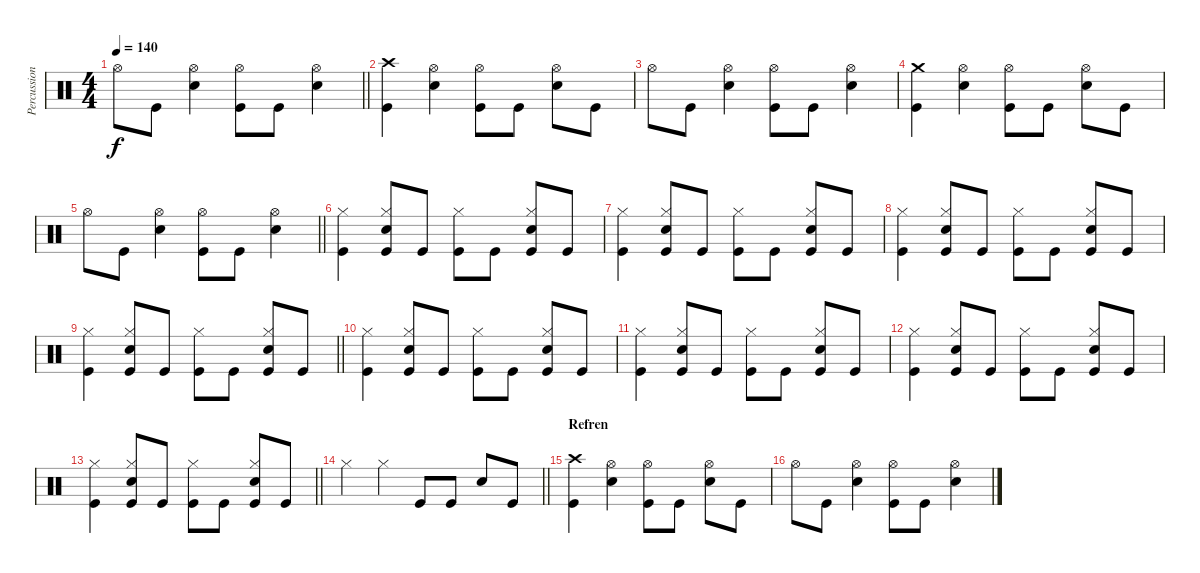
\track ("Percussion" "Percussion") {instrument percussion}
\staff {score}
\articulation defaults
\ts (4 4)
\tempo 140
\clef neutral
\barLineRight lightlight
\ks c "Hi-Hat (open)".8{dy f} "Kick (hit)".8
("Hi-Hat (open)" "Electric Snare (hit)").4 ("Hi-Hat (open)" "Kick (hit)").8 "Kick (hit)".8 ("Hi-Hat (open)" "Electric Snare (hit)").4 |
("Crash high (hit)" "Kick (hit)").4 ("Hi-Hat (open)" "Electric Snare (hit)").4 ("Hi-Hat (open)" "Kick (hit)").8 "Kick (hit)".8 ("Hi-Hat (open)" "Electric Snare (hit)").8 "Kick (hit)".8 |
"Hi-Hat (open)".8 "Kick (hit)".8 ("Hi-Hat (open)" "Electric Snare (hit)").4 ("Hi-Hat (open)" "Kick (hit)").8 "Kick (hit)".8 ("Hi-Hat (open)" "Electric Snare (hit)").4 |
("Crash medium (hit)" "Kick (hit)").4 ("Hi-Hat (open)" "Electric Snare (hit)").4 ("Hi-Hat (open)" "Kick (hit)").8 "Kick (hit)".8 ("Hi-Hat (open)" "Electric Snare (hit)").8 "Kick (hit)".8 |
\barLineRight lightlight "Hi-Hat (open)".8 "Kick (hit)".8
("Hi-Hat (open)" "Electric Snare (hit)").4 ("Hi-Hat (open)" "Kick (hit)").8 "Kick (hit)".8 ("Hi-Hat (open)" "Electric Snare (hit)").4 |
("Hi-Hat (closed)" "Kick (hit)").4 ("Hi-Hat (closed)" "Kick (hit)" "Snare (hit) 2").8 "Kick (hit)".8 ("Hi-Hat (closed)" "Kick (hit)").8 "Kick (hit)".8 ("Hi-Hat (closed)" "Kick (hit)" "Snare (hit) 2").8 "Kick (hit)".8 |
("Hi-Hat (closed)" "Kick (hit)").4 ("Hi-Hat (closed)" "Kick (hit)" "Snare (hit) 2").8 "Kick (hit)".8 ("Hi-Hat (closed)" "Kick (hit)").8 "Kick (hit)".8 ("Hi-Hat (closed)" "Kick (hit)" "Snare (hit) 2").8 "Kick (hit)".8 |
("Hi-Hat (closed)" "Kick (hit)").4 ("Hi-Hat (closed)" "Kick (hit)" "Snare (hit) 2").8 "Kick (hit)".8 ("Hi-Hat (closed)" "Kick (hit)").8 "Kick (hit)".8 ("Hi-Hat (closed)" "Kick (hit)" "Snare (hit) 2").8 "Kick (hit)".8 |
\barLineRight lightlight
("Hi-Hat (closed)" "Kick (hit)").4 ("Hi-Hat (closed)" "Kick (hit)" "Snare (hit) 2").8 "Kick (hit)".8 ("Hi-Hat (closed)" "Kick (hit)").8 "Kick (hit)".8 ("Hi-Hat (closed)" "Kick (hit)" "Snare (hit) 2").8 "Kick (hit)".8 |
("Hi-Hat (closed)" "Kick (hit)").4 ("Hi-Hat (closed)" "Kick (hit)" "Snare (hit) 2").8 "Kick (hit)".8 ("Hi-Hat (closed)" "Kick (hit)").8 "Kick (hit)".8 ("Hi-Hat (closed)" "Kick (hit)" "Snare (hit) 2").8 "Kick (hit)".8 |
("Hi-Hat (closed)" "Kick (hit)").4 ("Hi-Hat (closed)" "Kick (hit)" "Snare (hit) 2").8 "Kick (hit)".8 ("Hi-Hat (closed)" "Kick (hit)").8 "Kick (hit)".8 ("Hi-Hat (closed)" "Kick (hit)" "Snare (hit) 2").8 "Kick (hit)".8 |
("Hi-Hat (closed)" "Kick (hit)").4 ("Hi-Hat (closed)" "Kick (hit)" "Snare (hit) 2").8 "Kick (hit)".8 ("Hi-Hat (closed)" "Kick (hit)").8 "Kick (hit)".8 ("Hi-Hat (closed)" "Kick (hit)" "Snare (hit) 2").8 "Kick (hit)".8 |
\barLineRight lightlight
("Hi-Hat (closed)" "Kick (hit)").4 ("Hi-Hat (closed)" "Kick (hit)" "Snare (hit) 2").8 "Kick (hit)".8 ("Hi-Hat (closed)" "Kick (hit)").8 "Kick (hit)".8 ("Hi-Hat (closed)" "Kick (hit)" "Snare (hit) 2").8 "Kick (hit)".8 |
\barLineRight lightlight "Hi-Hat (closed)".4 "Hi-Hat (closed)".4 "Kick (hit)".8 "Kick (hit)".8 "Electric Snare (hit)".8 "Kick (hit)".8
|
\section ("" "Refren")
("Crash high (hit)" "Kick (hit)").4 ("Hi-Hat (open)" "Electric Snare (hit)").4 ("Hi-Hat (open)" "Kick (hit)").8 "Kick (hit)".8 ("Hi-Hat (open)" "Electric Snare (hit)").8 "Kick (hit)".8 |
"Hi-Hat (open)".8 "Kick (hit)".8 ("Hi-Hat (open)" "Electric Snare (hit)").4 ("Hi-Hat (open)" "Kick (hit)").8 "Kick (hit)".8 ("Hi-Hat (open)" "Electric Snare (hit)").4
